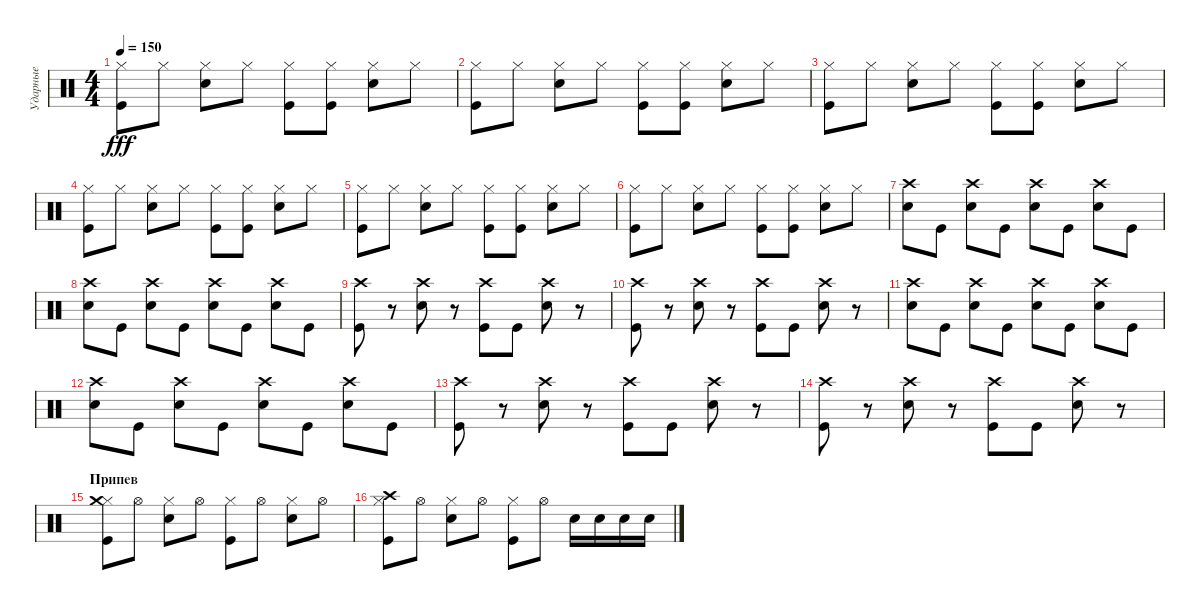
\track ("Ударные" "Ударные") {instrument percussion}
\staff {score}
\articulation defaults
\ts (4 4)
\tempo 150
\clef neutral
\ks c
("Hi-Hat (closed)" "Kick (hit)").8{dy fff} "Hi-Hat (closed)".8 ("Hi-Hat (closed)" "Electric Snare (hit)").8 "Hi-Hat (closed)".8 ("Hi-Hat (closed)" "Kick (hit)").8 ("Hi-Hat (closed)" "Kick (hit)").8 ("Hi-Hat (closed)" "Electric Snare (hit)").8 "Hi-Hat (closed)".8 |
("Hi-Hat (closed)" "Kick (hit)").8 "Hi-Hat (closed)".8 ("Hi-Hat (closed)" "Electric Snare (hit)").8 "Hi-Hat (closed)".8 ("Hi-Hat (closed)" "Kick (hit)").8 ("Hi-Hat (closed)" "Kick (hit)").8 ("Hi-Hat (closed)" "Electric Snare (hit)").8 "Hi-Hat (closed)".8 |
("Hi-Hat (closed)" "Kick (hit)").8 "Hi-Hat (closed)".8 ("Hi-Hat (closed)" "Electric Snare (hit)").8 "Hi-Hat (closed)".8 ("Hi-Hat (closed)" "Kick (hit)").8 ("Hi-Hat (closed)" "Kick (hit)").8 ("Hi-Hat (closed)" "Electric Snare (hit)").8 "Hi-Hat (closed)".8 |
("Hi-Hat (closed)" "Kick (hit)").8 "Hi-Hat (closed)".8 ("Hi-Hat (closed)" "Electric Snare (hit)").8 "Hi-Hat (closed)".8 ("Hi-Hat (closed)" "Kick (hit)").8 ("Hi-Hat (closed)" "Kick (hit)").8 ("Hi-Hat (closed)" "Electric Snare (hit)").8 "Hi-Hat (closed)".8 |
("Hi-Hat (closed)" "Kick (hit)").8 "Hi-Hat (closed)".8 ("Hi-Hat (closed)" "Electric Snare (hit)").8 "Hi-Hat (closed)".8 ("Hi-Hat (closed)" "Kick (hit)").8 ("Hi-Hat (closed)" "Kick (hit)").8 ("Hi-Hat (closed)" "Electric Snare (hit)").8 "Hi-Hat (closed)".8 |
("Hi-Hat (closed)" "Kick (hit)").8 "Hi-Hat (closed)".8 ("Hi-Hat (closed)" "Electric Snare (hit)").8 "Hi-Hat (closed)".8 ("Hi-Hat (closed)" "Kick (hit)").8 ("Hi-Hat (closed)" "Kick (hit)").8 ("Hi-Hat (closed)" "Electric Snare (hit)").8 "Hi-Hat (closed)".8 |
("Crash high (hit)" "Electric Snare (hit)").8 "Kick (hit)".8 ("Crash high (hit)" "Electric Snare (hit)").8 "Kick (hit)".8 ("Crash high (hit)" "Electric Snare (hit)").8 "Kick (hit)".8 ("Crash high (hit)" "Electric Snare (hit)").8 "Kick (hit)".8 |
("Crash high (hit)" "Electric Snare (hit)").8 "Kick (hit)".8 ("Crash high (hit)" "Electric Snare (hit)").8 "Kick (hit)".8 ("Crash high (hit)" "Electric Snare (hit)").8 "Kick (hit)".8 ("Crash high (hit)" "Electric Snare (hit)").8 "Kick (hit)".8 |
("Crash high (hit)" "Kick (hit)").8 r.8 ("Crash high (hit)" "Electric Snare (hit)").8 r.8 ("Crash high (hit)" "Kick (hit)").8 "Kick (hit)".8 ("Crash high (hit)" "Electric Snare (hit)").8 r.8 |
("Crash high (hit)" "Kick (hit)").8 r.8 ("Crash high (hit)" "Electric Snare (hit)").8 r.8 ("Crash high (hit)" "Kick (hit)").8 "Kick (hit)".8 ("Crash high (hit)" "Electric Snare (hit)").8 r.8 |
("Crash high (hit)" "Electric Snare (hit)").8 "Kick (hit)".8 ("Crash high (hit)" "Electric Snare (hit)").8 "Kick (hit)".8 ("Crash high (hit)" "Electric Snare (hit)").8 "Kick (hit)".8 ("Crash high (hit)" "Electric Snare (hit)").8 "Kick (hit)".8 |
("Crash high (hit)" "Electric Snare (hit)").8 "Kick (hit)".8 ("Crash high (hit)" "Electric Snare (hit)").8 "Kick (hit)".8 ("Crash high (hit)" "Electric Snare (hit)").8 "Kick (hit)".8 ("Crash high (hit)" "Electric Snare (hit)").8 "Kick (hit)".8 |
("Crash high (hit)" "Kick (hit)").8 r.8 ("Crash high (hit)" "Electric Snare (hit)").8 r.8 ("Crash high (hit)" "Kick (hit)").8 "Kick (hit)".8 ("Crash high (hit)" "Electric Snare (hit)").8 r.8 |
("Crash high (hit)" "Kick (hit)").8 r.8 ("Crash high (hit)" "Electric Snare (hit)").8 r.8 ("Crash high (hit)" "Kick (hit)").8 "Kick (hit)".8 ("Crash high (hit)" "Electric Snare (hit)").8 r.8 |
\section ("" "Припев")
("Hi-Hat (closed)" "Kick (hit)" "Crash medium (hit)").8 "Hi-Hat (open)".8 ("Hi-Hat (closed)" "Electric Snare (hit)").8 "Hi-Hat (open)".8 ("Hi-Hat (closed)" "Kick (hit)").8 "Hi-Hat (open)".8 ("Hi-Hat (closed)" "Electric Snare (hit)").8 "Hi-Hat (open)".8 |
("Hi-Hat (closed)" "Kick (hit)" "Crash high (hit)").8 "Hi-Hat (open)".8 ("Hi-Hat (closed)" "Electric Snare (hit)").8 "Hi-Hat (open)".8 ("Hi-Hat (closed)" "Kick (hit)").8 "Hi-Hat (open)".8 "Electric Snare (hit)".16 "Electric Snare (hit)".16 "Electric Snare (hit)".16 "Electric Snare (hit)".16
